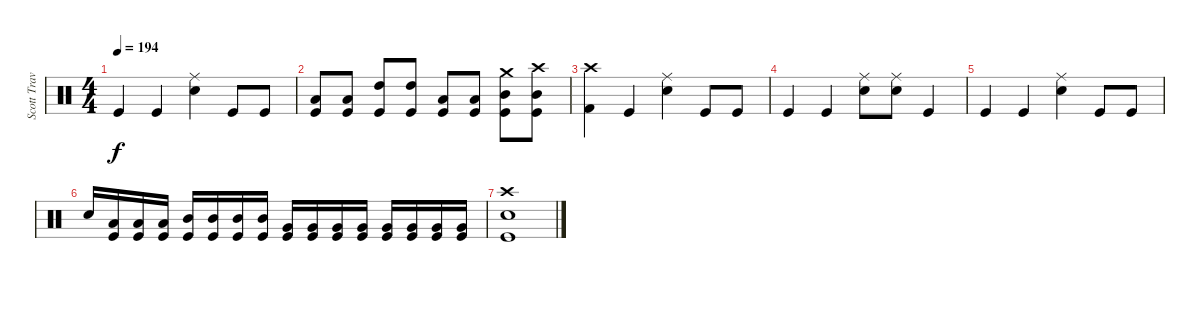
\track ("Scott Travis" "Scott Trav") {instrument percussion}
\staff {score}
\articulation defaults
\ts (4 4)
\tempo 194
\clef neutral
\ks c "Kick (hit)".4{dy f} "Kick (hit)".4
("Snare (hit) 2" "Ride (middle)").4 "Kick (hit)".8 "Kick (hit)".8 |
("Low Tom (hit)" "Kick (hit)").8 ("Low Tom (hit)" "Kick (hit)").8 ("High Tom (hit)" "Kick (hit)").8 ("High Tom (hit)" "Kick (hit)").8 ("Low Tom (hit)" "Kick (hit)").8 ("Low Tom (hit)" "Kick (hit)").8 ("Mid Tom (hit)" "Crash medium (hit)" "Kick (hit)").8 ("Mid Tom (hit)" "Crash high (hit)" "Kick (hit)").8 |
("Kick (hit) 2" "Crash high (hit)").4 "Kick (hit)".4 ("Snare (hit) 2" "Ride (middle)").4 "Kick (hit)".8 "Kick (hit)".8 |
"Kick (hit)".4 "Kick (hit)".4 ("Snare (hit) 2" "Ride (middle)").8 ("Snare (hit) 2" "Ride (middle)").8 "Kick (hit)".4 |
"Kick (hit)".4 "Kick (hit)".4 ("Snare (hit) 2" "Ride (middle)").4 "Kick (hit)".8 "Kick (hit)".8 |
"Snare (hit) 2".16 ("Low Tom (hit)" "Kick (hit)").16 ("Low Tom (hit)" "Kick (hit)").16 ("Low Tom (hit)" "Kick (hit)").16 ("Mid Tom (hit)" "Kick (hit)").16 ("Mid Tom (hit)" "Kick (hit)").16 ("Mid Tom (hit)" "Kick (hit)").16 ("Mid Tom (hit)" "Kick (hit)").16 ("Very Low Tom (hit)" "Kick (hit)").16 ("Very Low Tom (hit)" "Kick (hit)").16 ("Very Low Tom (hit)" "Kick (hit)").16 ("Very Low Tom (hit)" "Kick (hit)").16 ("Very Low Tom (hit)" "Kick (hit)").16 ("Very Low Tom (hit)" "Kick (hit)").16 ("Very Low Tom (hit)" "Kick (hit)").16 ("Very Low Tom (hit)" "Kick (hit)").16 |
("Crash high (hit)" "Snare (hit) 2" "Kick (hit)").1
